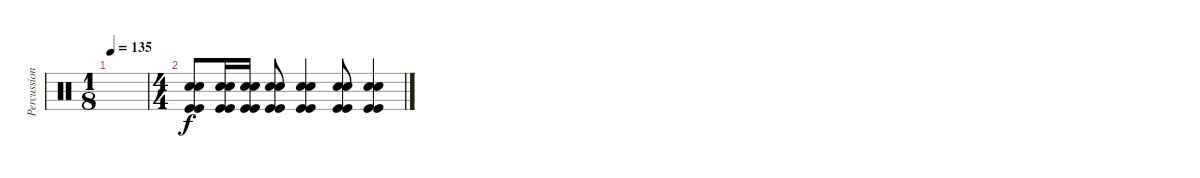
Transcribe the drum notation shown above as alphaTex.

\track ("Percussion" "Percussion") {instrument percussion}
\staff {score}
\articulation defaults
\ts (1 8)
\tempo 135
\clef neutral
\ks c
|
\ts (4 4)
("Snare (hit) 2" "Hand Clap (hit)" "Kick (hit)" "Kick (hit)").8 ("Snare (hit) 2" "Hand Clap (hit)" "Kick (hit)" "Kick (hit)").16 ("Snare (hit) 2" "Hand Clap (hit)" "Kick (hit)" "Kick (hit)").16 ("Snare (hit) 2" "Hand Clap (hit)" "Kick (hit)" "Kick (hit)").8 ("Snare (hit) 2" "Hand Clap (hit)" "Kick (hit)" "Kick (hit)").4 ("Snare (hit) 2" "Hand Clap (hit)" "Kick (hit)" "Kick (hit)").8 ("Snare (hit) 2" "Hand Clap (hit)" "Kick (hit)" "Kick (hit)").4
